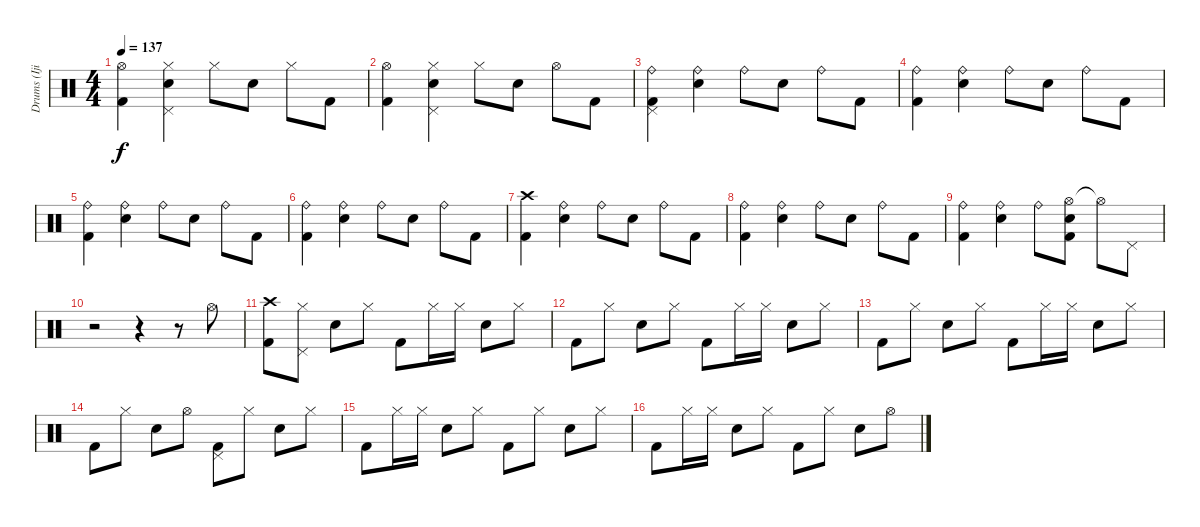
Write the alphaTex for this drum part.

\track ("Drums (Ijichi)" "Drums (Iji") {instrument percussion}
\staff {score}
\articulation defaults
\ts (4 4)
\tempo 137
\clef neutral
\ks c
("Hi-Hat (open)" "Kick (hit) 2").4{dy f} ("Hi-Hat (closed)" "Pedal Hi-Hat (hit)" "Snare (hit) 2").4 "Hi-Hat (closed)".8 "Snare (hit) 2".8 "Hi-Hat (closed)".8 "Kick (hit) 2".8 |
("Hi-Hat (open)" "Kick (hit) 2").4 ("Hi-Hat (closed)" "Pedal Hi-Hat (hit)" "Snare (hit) 2").4 "Hi-Hat (closed)".8 "Snare (hit) 2".8 "Hi-Hat (open)".8 "Kick (hit) 2".8 |
("Ride (bell)" "Pedal Hi-Hat (hit)" "Kick (hit) 2").4 ("Ride (bell)" "Snare (hit) 2").4 "Ride (bell)".8 "Snare (hit) 2".8 "Ride (bell)".8 "Kick (hit) 2".8 |
("Ride (bell)" "Kick (hit) 2").4 ("Ride (bell)" "Snare (hit) 2").4 "Ride (bell)".8 "Snare (hit) 2".8 "Ride (bell)".8 "Kick (hit) 2".8 |
("Ride (bell)" "Kick (hit) 2").4 ("Ride (bell)" "Snare (hit) 2").4 "Ride (bell)".8 "Snare (hit) 2".8 "Ride (bell)".8 "Kick (hit) 2".8 |
("Ride (bell)" "Kick (hit) 2").4 ("Ride (bell)" "Snare (hit) 2").4 "Ride (bell)".8 "Snare (hit) 2".8 "Ride (bell)".8 "Kick (hit) 2".8 |
("Crash high (hit)" "Kick (hit) 2").4 ("Ride (bell)" "Snare (hit) 2").4 "Ride (bell)".8 "Snare (hit) 2".8 "Ride (bell)".8 "Kick (hit) 2".8 |
("Ride (bell)" "Kick (hit) 2").4 ("Ride (bell)" "Snare (hit) 2").4 "Ride (bell)".8 "Snare (hit) 2".8 "Ride (bell)".8 "Kick (hit) 2".8 |
("Ride (bell)" "Kick (hit) 2").4 ("Ride (bell)" "Snare (hit) 2").4 "Ride (bell)".8 ("Hi-Hat (open)" "Snare (hit) 2" "Kick (hit) 2").8 "Hi-Hat (open)"{t}.8 "Pedal Hi-Hat (hit)".8 |
r.2 r.4 r.8 "Hi-Hat (open)".8 |
("Crash high (hit)" "Kick (hit) 2").8 ("Hi-Hat (closed)" "Pedal Hi-Hat (hit)").8 "Snare (hit) 2".8 "Hi-Hat (closed)".8 "Kick (hit) 2".8 "Hi-Hat (closed)".16 "Hi-Hat (closed)".16 "Snare (hit) 2".8 "Hi-Hat (closed)".8 |
"Kick (hit) 2".8 "Hi-Hat (closed)".8 "Snare (hit) 2".8 "Hi-Hat (closed)".8 "Kick (hit) 2".8 "Hi-Hat (closed)".16 "Hi-Hat (closed)".16 "Snare (hit) 2".8 "Hi-Hat (closed)".8 |
"Kick (hit) 2".8 "Hi-Hat (closed)".8 "Snare (hit) 2".8 "Hi-Hat (closed)".8 "Kick (hit) 2".8 "Hi-Hat (closed)".16 "Hi-Hat (closed)".16 "Snare (hit) 2".8 "Hi-Hat (closed)".8 |
"Kick (hit) 2".8 "Hi-Hat (closed)".8 "Snare (hit) 2".8 "Hi-Hat (open)".8 ("Pedal Hi-Hat (hit)" "Kick (hit) 2").8 "Hi-Hat (closed)".8 "Snare (hit) 2".8 "Hi-Hat (closed)".8 |
"Kick (hit) 2".8 "Hi-Hat (closed)".16 "Hi-Hat (closed)".16 "Snare (hit) 2".8 "Hi-Hat (closed)".8 "Kick (hit) 2".8 "Hi-Hat (closed)".8 "Snare (hit) 2".8 "Hi-Hat (closed)".8 |
"Kick (hit) 2".8 "Hi-Hat (closed)".16 "Hi-Hat (closed)".16 "Snare (hit) 2".8 "Hi-Hat (closed)".8 "Kick (hit) 2".8 "Hi-Hat (closed)".8 "Snare (hit) 2".8 "Hi-Hat (open)".8
